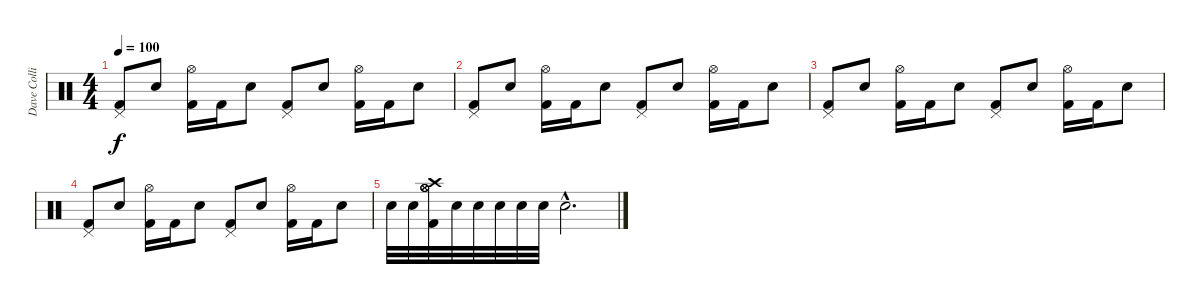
\track ("Dave Collins" "Dave Colli") {instrument percussion}
\staff {score}
\articulation defaults
\ts (4 4)
\tempo 100
\clef neutral
\ks c
("Pedal Hi-Hat (hit)" "Kick (hit) 2").8{dy f} "Electric Snare (hit)".8 ("Hi-Hat (open)" "Kick (hit) 2").16 "Kick (hit) 2".16 "Electric Snare (hit)".8 ("Pedal Hi-Hat (hit)" "Kick (hit) 2").8 "Electric Snare (hit)".8 ("Hi-Hat (open)" "Kick (hit) 2").16 "Kick (hit) 2".16 "Electric Snare (hit)".8 |
("Pedal Hi-Hat (hit)" "Kick (hit) 2").8 "Electric Snare (hit)".8 ("Hi-Hat (open)" "Kick (hit) 2").16 "Kick (hit) 2".16 "Electric Snare (hit)".8 ("Pedal Hi-Hat (hit)" "Kick (hit) 2").8 "Electric Snare (hit)".8 ("Hi-Hat (open)" "Kick (hit) 2").16 "Kick (hit) 2".16 "Electric Snare (hit)".8 |
("Pedal Hi-Hat (hit)" "Kick (hit) 2").8 "Electric Snare (hit)".8 ("Hi-Hat (open)" "Kick (hit) 2").16 "Kick (hit) 2".16 "Electric Snare (hit)".8 ("Pedal Hi-Hat (hit)" "Kick (hit) 2").8 "Electric Snare (hit)".8 ("Hi-Hat (open)" "Kick (hit) 2").16 "Kick (hit) 2".16 "Electric Snare (hit)".8 |
("Pedal Hi-Hat (hit)" "Kick (hit) 2").8 "Electric Snare (hit)".8 ("Hi-Hat (open)" "Kick (hit) 2").16 "Kick (hit) 2".16 "Electric Snare (hit)".8 ("Pedal Hi-Hat (hit)" "Kick (hit) 2").8 "Electric Snare (hit)".8 ("Hi-Hat (open)" "Kick (hit) 2").16 "Kick (hit) 2".16 "Electric Snare (hit)".8 |
"Electric Snare (hit)".32 "Electric Snare (hit)".32 ("Hi-Hat (open)" "Hi-Hat (open)" "Hi-Hat (open)" "Hi-Hat (open)" "Kick (hit) 2" "Crash high (hit)").32 "Snare (hit)".32 "Snare (hit)".32 "Snare (hit)".32 "Snare (hit)".32 "Snare (hit)".32 "Snare (hit)"{hac}.2{d}
